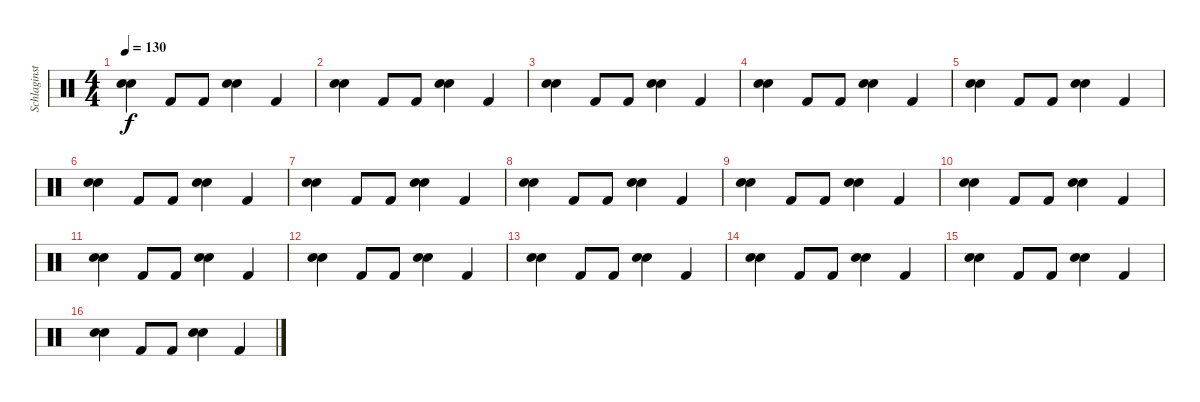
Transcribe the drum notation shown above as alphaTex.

\track ("Schlaginstrumente - Auswahl" "Schlaginst") {instrument percussion}
\staff {score}
\articulation defaults
\ts (4 4)
\tempo 130
\clef neutral
\ks c
("Snare (hit) 2" "Electric Snare (hit)").4{dy f} "Kick (hit) 2".8 "Kick (hit) 2".8 ("Snare (hit) 2" "Electric Snare (hit)").4 "Kick (hit) 2".4 |
("Snare (hit) 2" "Electric Snare (hit)").4 "Kick (hit) 2".8 "Kick (hit) 2".8 ("Snare (hit) 2" "Electric Snare (hit)").4 "Kick (hit) 2".4 |
("Snare (hit) 2" "Electric Snare (hit)").4 "Kick (hit) 2".8 "Kick (hit) 2".8 ("Snare (hit) 2" "Electric Snare (hit)").4 "Kick (hit) 2".4 |
("Snare (hit) 2" "Electric Snare (hit)").4 "Kick (hit) 2".8 "Kick (hit) 2".8 ("Snare (hit) 2" "Electric Snare (hit)").4 "Kick (hit) 2".4 |
("Snare (hit) 2" "Electric Snare (hit)").4 "Kick (hit) 2".8 "Kick (hit) 2".8 ("Snare (hit) 2" "Electric Snare (hit)").4 "Kick (hit) 2".4 |
("Snare (hit) 2" "Electric Snare (hit)").4 "Kick (hit) 2".8 "Kick (hit) 2".8 ("Snare (hit) 2" "Electric Snare (hit)").4 "Kick (hit) 2".4 |
("Snare (hit) 2" "Electric Snare (hit)").4 "Kick (hit) 2".8 "Kick (hit) 2".8 ("Snare (hit) 2" "Electric Snare (hit)").4 "Kick (hit) 2".4 |
("Snare (hit) 2" "Electric Snare (hit)").4 "Kick (hit) 2".8 "Kick (hit) 2".8 ("Snare (hit) 2" "Electric Snare (hit)").4 "Kick (hit) 2".4 |
("Snare (hit) 2" "Electric Snare (hit)").4 "Kick (hit) 2".8 "Kick (hit) 2".8 ("Snare (hit) 2" "Electric Snare (hit)").4 "Kick (hit) 2".4 |
("Snare (hit) 2" "Electric Snare (hit)").4 "Kick (hit) 2".8 "Kick (hit) 2".8 ("Snare (hit) 2" "Electric Snare (hit)").4 "Kick (hit) 2".4 |
("Snare (hit) 2" "Electric Snare (hit)").4 "Kick (hit) 2".8 "Kick (hit) 2".8 ("Snare (hit) 2" "Electric Snare (hit)").4 "Kick (hit) 2".4 |
("Snare (hit) 2" "Electric Snare (hit)").4 "Kick (hit) 2".8 "Kick (hit) 2".8 ("Snare (hit) 2" "Electric Snare (hit)").4 "Kick (hit) 2".4 |
("Snare (hit) 2" "Electric Snare (hit)").4 "Kick (hit) 2".8 "Kick (hit) 2".8 ("Snare (hit) 2" "Electric Snare (hit)").4 "Kick (hit) 2".4 |
("Snare (hit) 2" "Electric Snare (hit)").4 "Kick (hit) 2".8 "Kick (hit) 2".8 ("Snare (hit) 2" "Electric Snare (hit)").4 "Kick (hit) 2".4 |
("Snare (hit) 2" "Electric Snare (hit)").4 "Kick (hit) 2".8 "Kick (hit) 2".8 ("Snare (hit) 2" "Electric Snare (hit)").4 "Kick (hit) 2".4 |
("Snare (hit) 2" "Electric Snare (hit)").4 "Kick (hit) 2".8 "Kick (hit) 2".8 ("Snare (hit) 2" "Electric Snare (hit)").4 "Kick (hit) 2".4
